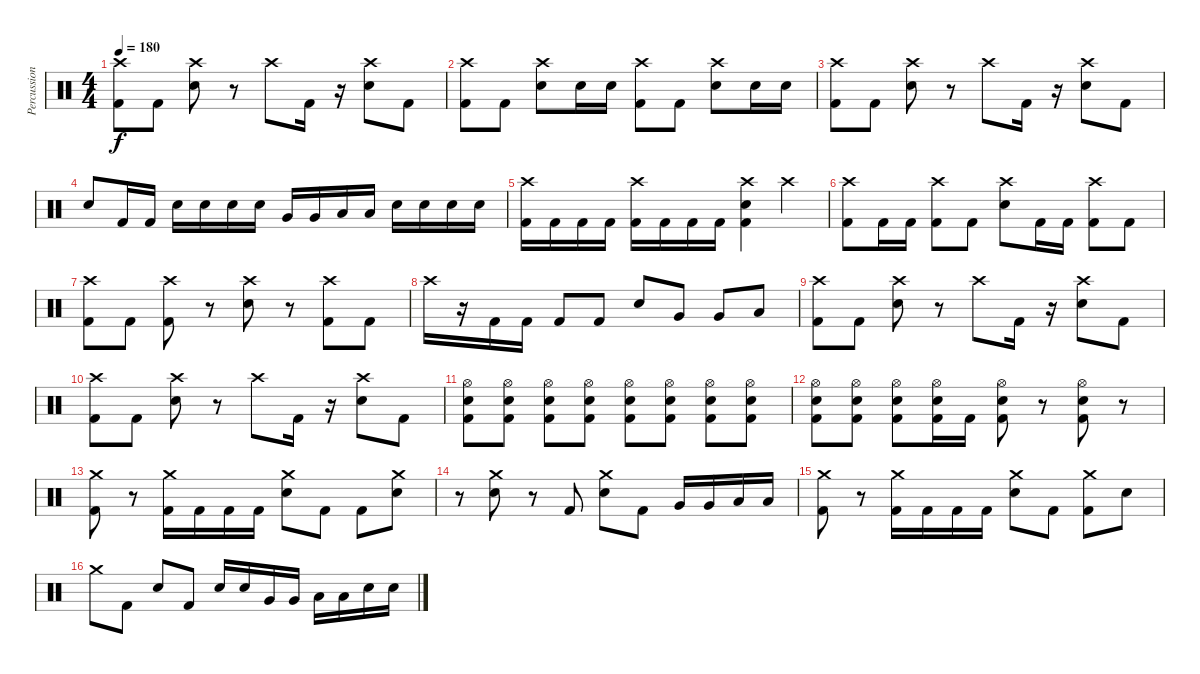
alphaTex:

\track ("Percussions" "Percussion") {instrument percussion}
\staff {score}
\articulation defaults
\ts (4 4)
\tempo 180
\clef neutral
\ks c
("Crash high (hit)" "Kick (hit) 2").8{dy f} "Kick (hit) 2".8 ("Crash high (hit)" "Electric Snare (hit)").8 r.8 "Crash high (hit)".8 "Kick (hit) 2".16 r.16 ("Crash high (hit)" "Electric Snare (hit)").8 "Kick (hit) 2".8 |
("Crash high (hit)" "Kick (hit) 2").8 "Kick (hit) 2".8 ("Crash high (hit)" "Electric Snare (hit)").8 "Electric Snare (hit)".16 "Electric Snare (hit)".16 ("Crash high (hit)" "Kick (hit) 2").8 "Kick (hit) 2".8 ("Crash high (hit)" "Electric Snare (hit)").8 "Electric Snare (hit)".16 "Electric Snare (hit)".16 |
("Crash high (hit)" "Kick (hit) 2").8 "Kick (hit) 2".8 ("Crash high (hit)" "Electric Snare (hit)").8 r.8 "Crash high (hit)".8 "Kick (hit) 2".16 r.16 ("Crash high (hit)" "Electric Snare (hit)").8 "Kick (hit) 2".8 |
"Electric Snare (hit)".8 "Kick (hit) 2".16 "Kick (hit) 2".16 "Electric Snare (hit)".16 "Electric Snare (hit)".16 "Electric Snare (hit)".16 "Electric Snare (hit)".16 "Very Low Tom (hit)".16 "Very Low Tom (hit)".16 "Low Floor Tom (hit)".16 "Low Floor Tom (hit)".16 "Electric Snare (hit)".16 "Electric Snare (hit)".16 "Electric Snare (hit)".16 "Electric Snare (hit)".16 |
("Crash high (hit)" "Kick (hit) 2").16 "Kick (hit) 2".16 "Kick (hit) 2".16 "Kick (hit) 2".16 ("Crash high (hit)" "Kick (hit) 2").16 "Kick (hit) 2".16 "Kick (hit) 2".16 "Kick (hit) 2".16 ("Crash high (hit)" "Electric Snare (hit)" "Kick (hit) 2").4 "Crash high (hit)".4 |
("Crash high (hit)" "Kick (hit) 2").8 "Kick (hit) 2".16 "Kick (hit) 2".16 ("Crash high (hit)" "Kick (hit) 2").8 "Kick (hit) 2".8 ("Crash high (hit)" "Electric Snare (hit)").8 "Kick (hit) 2".16 "Kick (hit) 2".16 ("Crash high (hit)" "Kick (hit) 2").8 "Kick (hit) 2".8 |
("Crash high (hit)" "Kick (hit) 2").8 "Kick (hit) 2".8 ("Crash high (hit)" "Kick (hit) 2").8 r.8 ("Crash high (hit)" "Electric Snare (hit)").8 r.8 ("Crash high (hit)" "Kick (hit) 2").8 "Kick (hit) 2".8 |
"Crash high (hit)".16 r.16 "Kick (hit) 2".16 "Kick (hit) 2".16 "Kick (hit) 2".8 "Kick (hit) 2".8 "Electric Snare (hit)".8 "Very Low Tom (hit)".8 "Very Low Tom (hit)".8 "Low Floor Tom (hit)".8 |
("Crash high (hit)" "Kick (hit) 2").8 "Kick (hit) 2".8 ("Crash high (hit)" "Electric Snare (hit)").8 r.8 "Crash high (hit)".8 "Kick (hit) 2".16 r.16 ("Crash high (hit)" "Electric Snare (hit)").8 "Kick (hit) 2".8 |
("Crash high (hit)" "Kick (hit) 2").8 "Kick (hit) 2".8 ("Crash high (hit)" "Electric Snare (hit)").8 r.8 "Crash high (hit)".8 "Kick (hit) 2".16 r.16 ("Crash high (hit)" "Electric Snare (hit)").8 "Kick (hit) 2".8 |
("Hi-Hat (open)" "Electric Snare (hit)" "Kick (hit) 2").8 ("Hi-Hat (open)" "Electric Snare (hit)" "Kick (hit) 2").8 ("Hi-Hat (open)" "Electric Snare (hit)" "Kick (hit) 2").8 ("Hi-Hat (open)" "Electric Snare (hit)" "Kick (hit) 2").8 ("Hi-Hat (open)" "Electric Snare (hit)" "Kick (hit) 2").8 ("Hi-Hat (open)" "Electric Snare (hit)" "Kick (hit) 2").8 ("Hi-Hat (open)" "Electric Snare (hit)" "Kick (hit) 2").8 ("Hi-Hat (open)" "Electric Snare (hit)" "Kick (hit) 2").8 |
("Hi-Hat (open)" "Electric Snare (hit)" "Kick (hit) 2").8 ("Hi-Hat (open)" "Electric Snare (hit)" "Kick (hit) 2").8 ("Hi-Hat (open)" "Electric Snare (hit)" "Kick (hit) 2").8 ("Hi-Hat (open)" "Electric Snare (hit)" "Kick (hit) 2").16 "Kick (hit) 2".16 ("Hi-Hat (open)" "Electric Snare (hit)" "Kick (hit) 2").8 r.8 ("Hi-Hat (open)" "Electric Snare (hit)" "Kick (hit) 2").8 r.8 |
("Crash medium (hit)" "Kick (hit) 2").8 r.8 ("Crash medium (hit)" "Kick (hit) 2").16 "Kick (hit) 2".16 "Kick (hit) 2".16 "Kick (hit) 2".16 ("Crash medium (hit)" "Electric Snare (hit)").8 "Kick (hit) 2".8 "Kick (hit) 2".8 ("Crash medium (hit)" "Electric Snare (hit)").8 |
r.8 ("Crash medium (hit)" "Electric Snare (hit)").8 r.8 "Kick (hit) 2".8 ("Crash medium (hit)" "Electric Snare (hit)").8 "Kick (hit) 2".8 "Very Low Tom (hit)".16 "Very Low Tom (hit)".16 "Low Floor Tom (hit)".16 "Low Floor Tom (hit)".16 |
("Crash medium (hit)" "Kick (hit) 2").8 r.8 ("Crash medium (hit)" "Kick (hit) 2").16 "Kick (hit) 2".16 "Kick (hit) 2".16 "Kick (hit) 2".16 ("Crash medium (hit)" "Electric Snare (hit)").8 "Kick (hit) 2".8 ("Crash medium (hit)" "Kick (hit) 2").8 "Electric Snare (hit)".8 |
"Crash medium (hit)".8 "Kick (hit) 2".8 "Electric Snare (hit)".8 "Kick (hit) 2".8 "Electric Snare (hit)".16 "Electric Snare (hit)".16 "Very Low Tom (hit)".16 "Very Low Tom (hit)".16 "Low Floor Tom (hit)".16 "Low Floor Tom (hit)".16 "Electric Snare (hit)".16 "Electric Snare (hit)".16
